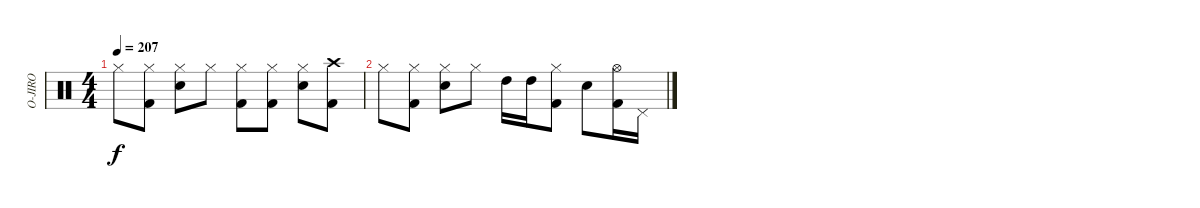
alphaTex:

\track ("O-JIRO" "O-JIRO") {instrument percussion}
\staff {score}
\articulation defaults
\ts (4 4)
\tempo 207
\clef neutral
\ks c "Hi-Hat (closed)".8{dy f}
("Hi-Hat (closed)" "Kick (hit) 2").8 ("Hi-Hat (closed)" "Snare (hit) 2").8 "Hi-Hat (closed)".8 ("Hi-Hat (closed)" "Kick (hit) 2").8 ("Hi-Hat (closed)" "Kick (hit) 2").8 ("Hi-Hat (closed)" "Snare (hit) 2").8 ("Crash high (hit)" "Kick (hit) 2").8 |
"Hi-Hat (closed)".8 ("Hi-Hat (closed)" "Kick (hit) 2").8 ("Hi-Hat (closed)" "Snare (hit) 2").8 "Hi-Hat (closed)".8 "High Tom (hit)".16 "High Tom (hit)".16 ("Hi-Hat (closed)" "Kick (hit) 2").8 "Snare (hit) 2".8 ("Hi-Hat (open)" "Kick (hit) 2").16 "Pedal Hi-Hat (hit)".16
